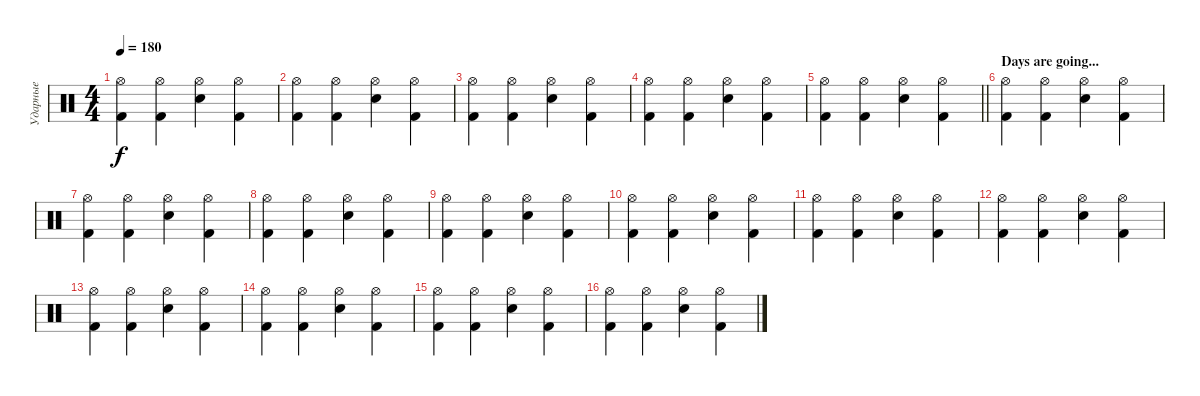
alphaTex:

\track ("Ударные" "Ударные") {instrument percussion}
\staff {score}
\articulation defaults
\ts (4 4)
\tempo 180
\clef neutral
\ks c
("Hi-Hat (open)" "Kick (hit) 2").4{dy f} ("Hi-Hat (open)" "Kick (hit) 2").4 ("Electric Snare (hit)" "Hi-Hat (open)").4 ("Hi-Hat (open)" "Kick (hit) 2").4 |
("Hi-Hat (open)" "Kick (hit) 2").4 ("Hi-Hat (open)" "Kick (hit) 2").4 ("Electric Snare (hit)" "Hi-Hat (open)").4 ("Hi-Hat (open)" "Kick (hit) 2").4 |
("Hi-Hat (open)" "Kick (hit) 2").4 ("Hi-Hat (open)" "Kick (hit) 2").4 ("Electric Snare (hit)" "Hi-Hat (open)").4 ("Hi-Hat (open)" "Kick (hit) 2").4 |
("Hi-Hat (open)" "Kick (hit) 2").4 ("Hi-Hat (open)" "Kick (hit) 2").4 ("Electric Snare (hit)" "Hi-Hat (open)").4 ("Hi-Hat (open)" "Kick (hit) 2").4 |
\barLineRight lightlight
("Hi-Hat (open)" "Kick (hit) 2").4 ("Hi-Hat (open)" "Kick (hit) 2").4 ("Electric Snare (hit)" "Hi-Hat (open)").4 ("Hi-Hat (open)" "Kick (hit) 2").4 |
\section ("" "Days are going...")
("Hi-Hat (open)" "Kick (hit) 2").4 ("Hi-Hat (open)" "Kick (hit) 2").4 ("Electric Snare (hit)" "Hi-Hat (open)").4 ("Hi-Hat (open)" "Kick (hit) 2").4 |
("Hi-Hat (open)" "Kick (hit) 2").4 ("Hi-Hat (open)" "Kick (hit) 2").4 ("Electric Snare (hit)" "Hi-Hat (open)").4 ("Hi-Hat (open)" "Kick (hit) 2").4 |
("Hi-Hat (open)" "Kick (hit) 2").4 ("Hi-Hat (open)" "Kick (hit) 2").4 ("Electric Snare (hit)" "Hi-Hat (open)").4 ("Hi-Hat (open)" "Kick (hit) 2").4 |
("Hi-Hat (open)" "Kick (hit) 2").4 ("Hi-Hat (open)" "Kick (hit) 2").4 ("Electric Snare (hit)" "Hi-Hat (open)").4 ("Hi-Hat (open)" "Kick (hit) 2").4 |
("Hi-Hat (open)" "Kick (hit) 2").4 ("Hi-Hat (open)" "Kick (hit) 2").4 ("Electric Snare (hit)" "Hi-Hat (open)").4 ("Hi-Hat (open)" "Kick (hit) 2").4 |
("Hi-Hat (open)" "Kick (hit) 2").4 ("Hi-Hat (open)" "Kick (hit) 2").4 ("Electric Snare (hit)" "Hi-Hat (open)").4 ("Hi-Hat (open)" "Kick (hit) 2").4 |
("Hi-Hat (open)" "Kick (hit) 2").4 ("Hi-Hat (open)" "Kick (hit) 2").4 ("Electric Snare (hit)" "Hi-Hat (open)").4 ("Hi-Hat (open)" "Kick (hit) 2").4 |
("Hi-Hat (open)" "Kick (hit) 2").4 ("Hi-Hat (open)" "Kick (hit) 2").4 ("Electric Snare (hit)" "Hi-Hat (open)").4 ("Hi-Hat (open)" "Kick (hit) 2").4 |
("Hi-Hat (open)" "Kick (hit) 2").4 ("Hi-Hat (open)" "Kick (hit) 2").4 ("Electric Snare (hit)" "Hi-Hat (open)").4 ("Hi-Hat (open)" "Kick (hit) 2").4 |
("Hi-Hat (open)" "Kick (hit) 2").4 ("Hi-Hat (open)" "Kick (hit) 2").4 ("Electric Snare (hit)" "Hi-Hat (open)").4 ("Hi-Hat (open)" "Kick (hit) 2").4 |
("Hi-Hat (open)" "Kick (hit) 2").4 ("Hi-Hat (open)" "Kick (hit) 2").4 ("Electric Snare (hit)" "Hi-Hat (open)").4 ("Hi-Hat (open)" "Kick (hit) 2").4
